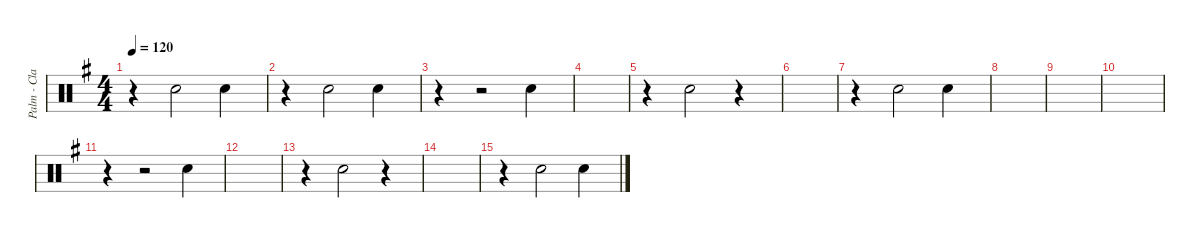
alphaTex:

\defaultSystemsLayout 4
\hideDynamics
\bracketExtendMode nobrackets
\otherSystemsTrackNameOrientation horizontal
\track ("Palm - Clap" "Palm - Cla") {defaultSystemsLayout 2 instrument percussion}
\staff {score}
\articulation defaults
\ts (4 4)
\tempo 120
\clef neutral
\ks g
r.4{dy mp} "Hand Clap (hit)"{acc forcenatural}.2 "Hand Clap (hit)"{acc forcenatural}.4 |
r.4 "Hand Clap (hit)"{acc forcenatural}.2 "Hand Clap (hit)"{acc forcenatural}.4 |
r.4 r.2 "Hand Clap (hit)"{acc forcenatural}.4 |
|
r.4 "Hand Clap (hit)"{acc forcenatural}.2 r.4 |
|
r.4 "Hand Clap (hit)"{acc forcenatural}.2 "Hand Clap (hit)"{acc forcenatural}.4 |
|
|
|
r.4 r.2 "Hand Clap (hit)"{acc forcenatural}.4 |
|
r.4 "Hand Clap (hit)"{acc forcenatural}.2 r.4 |
|
r.4 "Hand Clap (hit)"{acc forcenatural}.2 "Hand Clap (hit)"{acc forcenatural}.4
